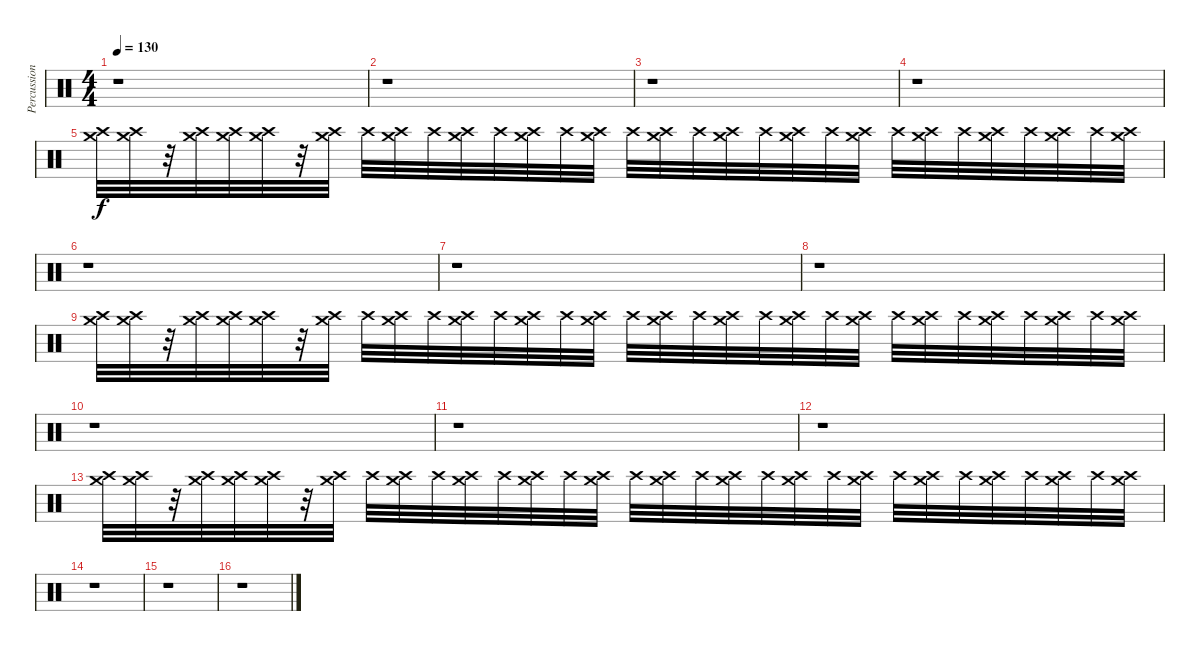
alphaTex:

\track ("Percussioni" "Percussion") {instrument percussion}
\staff {score}
\articulation defaults
\ts (4 4)
\tempo 130
\clef neutral
\ks c
r.1{dy f} |
r.1 |
r.1 |
r.1 |
("Crash high (hit)" "Crash medium (hit)").32{volume 0} ("Crash high (hit)" "Crash medium (hit)").32{volume 0} r.32 ("Crash high (hit)" "Crash medium (hit)").32{volume 0} ("Crash high (hit)" "Crash medium (hit)").32{volume 1} ("Crash high (hit)" "Crash medium (hit)").32{volume 1} r.32 ("Crash high (hit)" "Crash medium (hit)").32{volume 1} "Crash high (hit)".32{volume 1} ("Crash high (hit)" "Crash medium (hit)").32{volume 1} "Crash high (hit)".32{volume 2} ("Crash high (hit)" "Crash medium (hit)").32{volume 2} "Crash high (hit)".32{volume 3} ("Crash high (hit)" "Crash medium (hit)").32{volume 3} "Crash high (hit)".32{volume 4} ("Crash high (hit)" "Crash medium (hit)").32{volume 4} "Crash high (hit)".32{volume 5} ("Crash high (hit)" "Crash medium (hit)").32{volume 5} "Crash high (hit)".32{volume 6} ("Crash high (hit)" "Crash medium (hit)").32{volume 6} "Crash high (hit)".32{volume 7} ("Crash high (hit)" "Crash medium (hit)").32{volume 7} "Crash high (hit)".32{volume 8} ("Crash high (hit)" "Crash medium (hit)").32{volume 8} "Crash high (hit)".32{volume 9} ("Crash high (hit)" "Crash medium (hit)").32{volume 9} "Crash high (hit)".32{volume 10} ("Crash high (hit)" "Crash medium (hit)").32{volume 10} "Crash high (hit)".32{volume 11} ("Crash high (hit)" "Crash medium (hit)").32{volume 11} "Crash high (hit)".32 ("Crash high (hit)" "Crash medium (hit)").32 |
r.1 |
r.1 |
r.1 |
("Crash high (hit)" "Crash medium (hit)").32{volume 0} ("Crash high (hit)" "Crash medium (hit)").32{volume 0} r.32 ("Crash high (hit)" "Crash medium (hit)").32{volume 0} ("Crash high (hit)" "Crash medium (hit)").32{volume 1} ("Crash high (hit)" "Crash medium (hit)").32{volume 1} r.32 ("Crash high (hit)" "Crash medium (hit)").32{volume 1} "Crash high (hit)".32{volume 1} ("Crash high (hit)" "Crash medium (hit)").32{volume 1} "Crash high (hit)".32{volume 2} ("Crash high (hit)" "Crash medium (hit)").32{volume 2} "Crash high (hit)".32{volume 3} ("Crash high (hit)" "Crash medium (hit)").32{volume 3} "Crash high (hit)".32{volume 4} ("Crash high (hit)" "Crash medium (hit)").32{volume 4} "Crash high (hit)".32{volume 5} ("Crash high (hit)" "Crash medium (hit)").32{volume 5} "Crash high (hit)".32{volume 6} ("Crash high (hit)" "Crash medium (hit)").32{volume 6} "Crash high (hit)".32{volume 7} ("Crash high (hit)" "Crash medium (hit)").32{volume 7} "Crash high (hit)".32{volume 8} ("Crash high (hit)" "Crash medium (hit)").32{volume 8} "Crash high (hit)".32{volume 9} ("Crash high (hit)" "Crash medium (hit)").32{volume 9} "Crash high (hit)".32{volume 10} ("Crash high (hit)" "Crash medium (hit)").32{volume 10} "Crash high (hit)".32{volume 11} ("Crash high (hit)" "Crash medium (hit)").32{volume 11} "Crash high (hit)".32 ("Crash high (hit)" "Crash medium (hit)").32 |
r.1 |
r.1 |
r.1 |
("Crash high (hit)" "Crash medium (hit)").32{volume 0} ("Crash high (hit)" "Crash medium (hit)").32{volume 0} r.32 ("Crash high (hit)" "Crash medium (hit)").32{volume 0} ("Crash high (hit)" "Crash medium (hit)").32{volume 1} ("Crash high (hit)" "Crash medium (hit)").32{volume 1} r.32 ("Crash high (hit)" "Crash medium (hit)").32{volume 1} "Crash high (hit)".32{volume 1} ("Crash high (hit)" "Crash medium (hit)").32{volume 1} "Crash high (hit)".32{volume 2} ("Crash high (hit)" "Crash medium (hit)").32{volume 2} "Crash high (hit)".32{volume 3} ("Crash high (hit)" "Crash medium (hit)").32{volume 3} "Crash high (hit)".32{volume 4} ("Crash high (hit)" "Crash medium (hit)").32{volume 4} "Crash high (hit)".32{volume 5} ("Crash high (hit)" "Crash medium (hit)").32{volume 5} "Crash high (hit)".32{volume 6} ("Crash high (hit)" "Crash medium (hit)").32{volume 6} "Crash high (hit)".32{volume 7} ("Crash high (hit)" "Crash medium (hit)").32{volume 7} "Crash high (hit)".32{volume 8} ("Crash high (hit)" "Crash medium (hit)").32{volume 8} "Crash high (hit)".32{volume 9} ("Crash high (hit)" "Crash medium (hit)").32{volume 9} "Crash high (hit)".32{volume 10} ("Crash high (hit)" "Crash medium (hit)").32{volume 10} "Crash high (hit)".32{volume 11} ("Crash high (hit)" "Crash medium (hit)").32{volume 11} "Crash high (hit)".32 ("Crash high (hit)" "Crash medium (hit)").32 |
r.1 |
r.1 |
r.1
